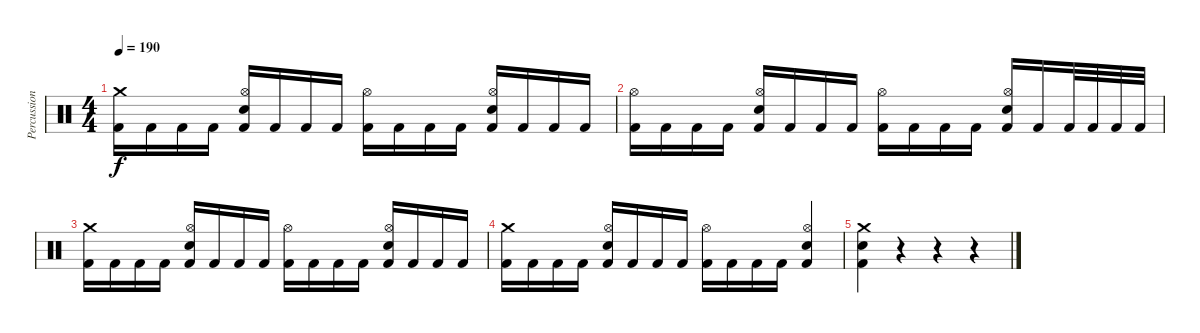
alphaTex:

\track ("Percussions" "Percussion") {instrument percussion}
\staff {score}
\articulation defaults
\ts (4 4)
\tempo 190
\clef neutral
\ks c
("Crash medium (hit)" "Kick (hit) 2").16{dy f} "Kick (hit) 2".16 "Kick (hit) 2".16 "Kick (hit) 2".16 ("Hi-Hat (open)" "Electric Snare (hit)" "Kick (hit) 2").16 "Kick (hit) 2".16 "Kick (hit) 2".16 "Kick (hit) 2".16 ("Hi-Hat (open)" "Kick (hit) 2").16 "Kick (hit) 2".16 "Kick (hit) 2".16 "Kick (hit) 2".16 ("Hi-Hat (open)" "Electric Snare (hit)" "Kick (hit) 2").16 "Kick (hit) 2".16 "Kick (hit) 2".16 "Kick (hit) 2".16 |
("Hi-Hat (open)" "Kick (hit) 2").16 "Kick (hit) 2".16 "Kick (hit) 2".16 "Kick (hit) 2".16 ("Hi-Hat (open)" "Electric Snare (hit)" "Kick (hit) 2").16 "Kick (hit) 2".16 "Kick (hit) 2".16 "Kick (hit) 2".16 ("Hi-Hat (open)" "Kick (hit) 2").16 "Kick (hit) 2".16 "Kick (hit) 2".16 "Kick (hit) 2".16 ("Hi-Hat (open)" "Electric Snare (hit)" "Kick (hit) 2").16 "Kick (hit) 2".16 "Kick (hit) 2".32 "Kick (hit) 2".32 "Kick (hit) 2".32 "Kick (hit) 2".32 |
("Crash medium (hit)" "Kick (hit) 2").16 "Kick (hit) 2".16 "Kick (hit) 2".16 "Kick (hit) 2".16 ("Hi-Hat (open)" "Electric Snare (hit)" "Kick (hit) 2").16 "Kick (hit) 2".16 "Kick (hit) 2".16 "Kick (hit) 2".16 ("Hi-Hat (open)" "Kick (hit) 2").16 "Kick (hit) 2".16 "Kick (hit) 2".16 "Kick (hit) 2".16 ("Hi-Hat (open)" "Electric Snare (hit)" "Kick (hit) 2").16 "Kick (hit) 2".16 "Kick (hit) 2".16 "Kick (hit) 2".16 |
("Crash medium (hit)" "Kick (hit) 2").16 "Kick (hit) 2".16 "Kick (hit) 2".16 "Kick (hit) 2".16 ("Hi-Hat (open)" "Electric Snare (hit)" "Kick (hit) 2").16 "Kick (hit) 2".16 "Kick (hit) 2".16 "Kick (hit) 2".16 ("Hi-Hat (open)" "Kick (hit) 2").16 "Kick (hit) 2".16 "Kick (hit) 2".16 "Kick (hit) 2".16 ("Hi-Hat (open)" "Electric Snare (hit)" "Kick (hit) 2").4 |
("Crash medium (hit)" "Electric Snare (hit)" "Kick (hit) 2").4 r.4 r.4 r.4
